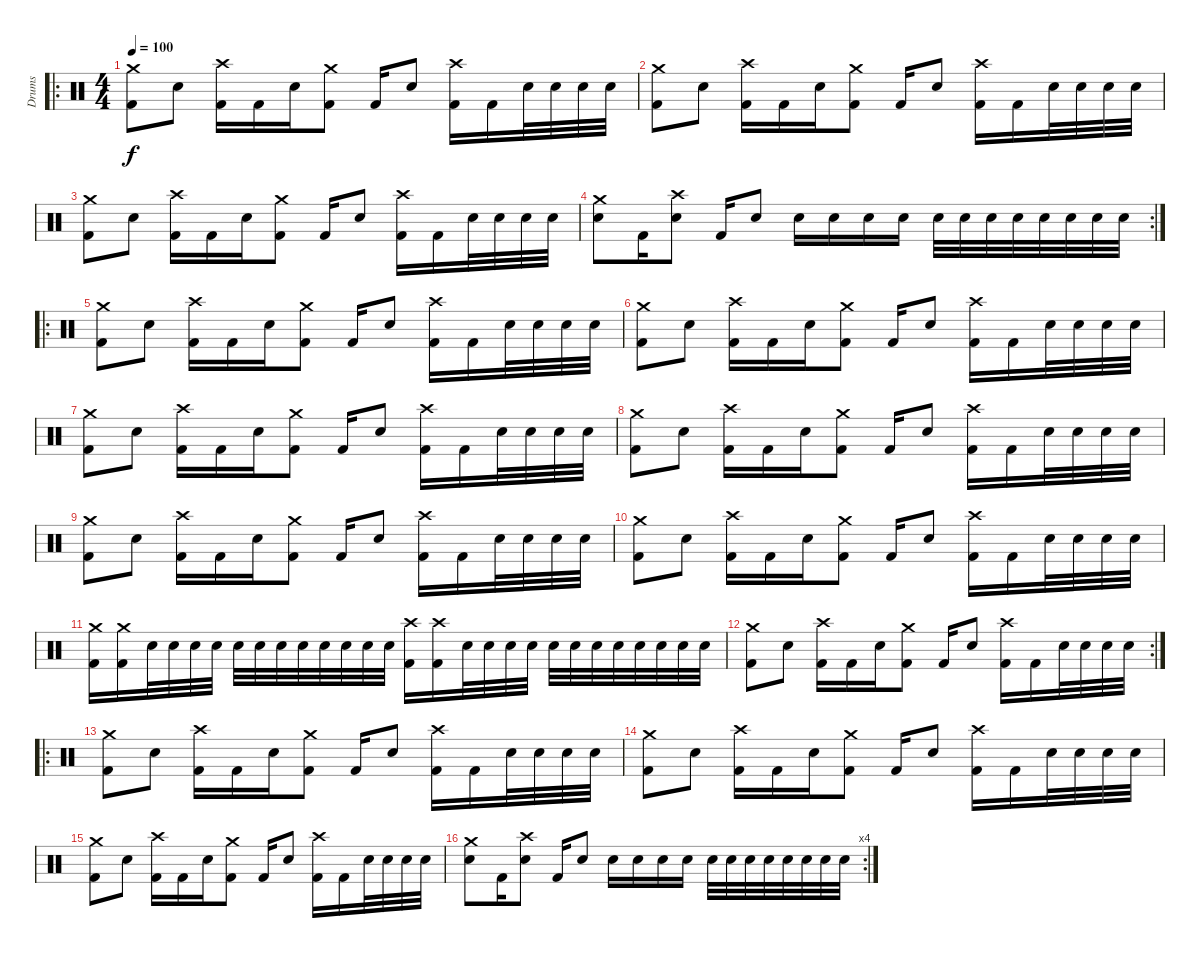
\track ("Drums" "Drums") {instrument percussion}
\staff {score}
\articulation defaults
\ro
\ts (4 4)
\tempo 100
\clef neutral
\ks c
("Crash medium (hit)" "Kick (hit) 2").8{dy f} "Snare (hit) 2".8 ("Crash high (hit)" "Kick (hit) 2").16 "Kick (hit) 2".16 "Snare (hit) 2".16 ("Crash medium (hit)" "Kick (hit) 2").8 "Kick (hit) 2".16 "Snare (hit) 2".8 ("Crash high (hit)" "Kick (hit) 2").16 "Kick (hit) 2".16 "Snare (hit) 2".32 "Snare (hit) 2".32 "Snare (hit) 2".32 "Snare (hit) 2".32 |
("Crash medium (hit)" "Kick (hit) 2").8 "Snare (hit) 2".8 ("Crash high (hit)" "Kick (hit) 2").16 "Kick (hit) 2".16 "Snare (hit) 2".16 ("Crash medium (hit)" "Kick (hit) 2").8 "Kick (hit) 2".16 "Snare (hit) 2".8 ("Crash high (hit)" "Kick (hit) 2").16 "Kick (hit) 2".16 "Snare (hit) 2".32 "Snare (hit) 2".32 "Snare (hit) 2".32 "Snare (hit) 2".32 |
("Crash medium (hit)" "Kick (hit) 2").8 "Snare (hit) 2".8 ("Crash high (hit)" "Kick (hit) 2").16 "Kick (hit) 2".16 "Snare (hit) 2".16 ("Crash medium (hit)" "Kick (hit) 2").8 "Kick (hit) 2".16 "Snare (hit) 2".8 ("Crash high (hit)" "Kick (hit) 2").16 "Kick (hit) 2".16 "Snare (hit) 2".32 "Snare (hit) 2".32 "Snare (hit) 2".32 "Snare (hit) 2".32 |
\rc 2
("Crash medium (hit)" "Snare (hit) 2").8 "Kick (hit) 2".16 ("Crash high (hit)" "Snare (hit) 2").8 "Kick (hit) 2".16 "Snare (hit) 2".8 "Snare (hit) 2".16 "Snare (hit) 2".16 "Snare (hit) 2".16 "Snare (hit) 2".16 "Snare (hit) 2".32 "Snare (hit) 2".32 "Snare (hit) 2".32 "Snare (hit) 2".32 "Snare (hit) 2".32 "Snare (hit) 2".32 "Snare (hit) 2".32 "Snare (hit) 2".32 |
\ro
("Crash medium (hit)" "Kick (hit) 2").8 "Snare (hit) 2".8 ("Crash high (hit)" "Kick (hit) 2").16 "Kick (hit) 2".16 "Snare (hit) 2".16 ("Crash medium (hit)" "Kick (hit) 2").8 "Kick (hit) 2".16 "Snare (hit) 2".8 ("Crash high (hit)" "Kick (hit) 2").16 "Kick (hit) 2".16 "Snare (hit) 2".32 "Snare (hit) 2".32 "Snare (hit) 2".32 "Snare (hit) 2".32 |
("Crash medium (hit)" "Kick (hit) 2").8 "Snare (hit) 2".8 ("Crash high (hit)" "Kick (hit) 2").16 "Kick (hit) 2".16 "Snare (hit) 2".16 ("Crash medium (hit)" "Kick (hit) 2").8 "Kick (hit) 2".16 "Snare (hit) 2".8 ("Crash high (hit)" "Kick (hit) 2").16 "Kick (hit) 2".16 "Snare (hit) 2".32 "Snare (hit) 2".32 "Snare (hit) 2".32 "Snare (hit) 2".32 |
("Crash medium (hit)" "Kick (hit) 2").8 "Snare (hit) 2".8 ("Crash high (hit)" "Kick (hit) 2").16 "Kick (hit) 2".16 "Snare (hit) 2".16 ("Crash medium (hit)" "Kick (hit) 2").8 "Kick (hit) 2".16 "Snare (hit) 2".8 ("Crash high (hit)" "Kick (hit) 2").16 "Kick (hit) 2".16 "Snare (hit) 2".32 "Snare (hit) 2".32 "Snare (hit) 2".32 "Snare (hit) 2".32 |
("Crash medium (hit)" "Kick (hit) 2").8 "Snare (hit) 2".8 ("Crash high (hit)" "Kick (hit) 2").16 "Kick (hit) 2".16 "Snare (hit) 2".16 ("Crash medium (hit)" "Kick (hit) 2").8 "Kick (hit) 2".16 "Snare (hit) 2".8 ("Crash high (hit)" "Kick (hit) 2").16 "Kick (hit) 2".16 "Snare (hit) 2".32 "Snare (hit) 2".32 "Snare (hit) 2".32 "Snare (hit) 2".32 |
("Crash medium (hit)" "Kick (hit) 2").8 "Snare (hit) 2".8 ("Crash high (hit)" "Kick (hit) 2").16 "Kick (hit) 2".16 "Snare (hit) 2".16 ("Crash medium (hit)" "Kick (hit) 2").8 "Kick (hit) 2".16 "Snare (hit) 2".8 ("Crash high (hit)" "Kick (hit) 2").16 "Kick (hit) 2".16 "Snare (hit) 2".32 "Snare (hit) 2".32 "Snare (hit) 2".32 "Snare (hit) 2".32 |
("Crash medium (hit)" "Kick (hit) 2").8 "Snare (hit) 2".8 ("Crash high (hit)" "Kick (hit) 2").16 "Kick (hit) 2".16 "Snare (hit) 2".16 ("Crash medium (hit)" "Kick (hit) 2").8 "Kick (hit) 2".16 "Snare (hit) 2".8 ("Crash high (hit)" "Kick (hit) 2").16 "Kick (hit) 2".16 "Snare (hit) 2".32 "Snare (hit) 2".32 "Snare (hit) 2".32 "Snare (hit) 2".32 |
("Crash medium (hit)" "Kick (hit) 2").16 ("Crash medium (hit)" "Kick (hit) 2").16 "Snare (hit) 2".32 "Snare (hit) 2".32 "Snare (hit) 2".32 "Snare (hit) 2".32 "Snare (hit) 2".32 "Snare (hit) 2".32 "Snare (hit) 2".32 "Snare (hit) 2".32 "Snare (hit) 2".32 "Snare (hit) 2".32 "Snare (hit) 2".32 "Snare (hit) 2".32 ("Crash high (hit)" "Kick (hit) 2").16 ("Crash high (hit)" "Kick (hit) 2").16 "Snare (hit) 2".32 "Snare (hit) 2".32 "Snare (hit) 2".32 "Snare (hit) 2".32 "Snare (hit) 2".32 "Snare (hit) 2".32 "Snare (hit) 2".32 "Snare (hit) 2".32 "Snare (hit) 2".32 "Snare (hit) 2".32 "Snare (hit) 2".32 "Snare (hit) 2".32 |
\rc 2
("Crash medium (hit)" "Kick (hit) 2").8 "Snare (hit) 2".8 ("Crash high (hit)" "Kick (hit) 2").16 "Kick (hit) 2".16 "Snare (hit) 2".16 ("Crash medium (hit)" "Kick (hit) 2").8 "Kick (hit) 2".16 "Snare (hit) 2".8 ("Crash high (hit)" "Kick (hit) 2").16 "Kick (hit) 2".16 "Snare (hit) 2".32 "Snare (hit) 2".32 "Snare (hit) 2".32 "Snare (hit) 2".32 |
\ro
("Crash medium (hit)" "Kick (hit) 2").8 "Snare (hit) 2".8 ("Crash high (hit)" "Kick (hit) 2").16 "Kick (hit) 2".16 "Snare (hit) 2".16 ("Crash medium (hit)" "Kick (hit) 2").8 "Kick (hit) 2".16 "Snare (hit) 2".8 ("Crash high (hit)" "Kick (hit) 2").16 "Kick (hit) 2".16 "Snare (hit) 2".32 "Snare (hit) 2".32 "Snare (hit) 2".32 "Snare (hit) 2".32 |
("Crash medium (hit)" "Kick (hit) 2").8 "Snare (hit) 2".8 ("Crash high (hit)" "Kick (hit) 2").16 "Kick (hit) 2".16 "Snare (hit) 2".16 ("Crash medium (hit)" "Kick (hit) 2").8 "Kick (hit) 2".16 "Snare (hit) 2".8 ("Crash high (hit)" "Kick (hit) 2").16 "Kick (hit) 2".16 "Snare (hit) 2".32 "Snare (hit) 2".32 "Snare (hit) 2".32 "Snare (hit) 2".32 |
("Crash medium (hit)" "Kick (hit) 2").8 "Snare (hit) 2".8 ("Crash high (hit)" "Kick (hit) 2").16 "Kick (hit) 2".16 "Snare (hit) 2".16 ("Crash medium (hit)" "Kick (hit) 2").8 "Kick (hit) 2".16 "Snare (hit) 2".8 ("Crash high (hit)" "Kick (hit) 2").16 "Kick (hit) 2".16 "Snare (hit) 2".32 "Snare (hit) 2".32 "Snare (hit) 2".32 "Snare (hit) 2".32 |
\rc 4
("Crash medium (hit)" "Snare (hit) 2").8 "Kick (hit) 2".16 ("Crash high (hit)" "Snare (hit) 2").8 "Kick (hit) 2".16 "Snare (hit) 2".8 "Snare (hit) 2".16 "Snare (hit) 2".16 "Snare (hit) 2".16 "Snare (hit) 2".16 "Snare (hit) 2".32 "Snare (hit) 2".32 "Snare (hit) 2".32 "Snare (hit) 2".32 "Snare (hit) 2".32 "Snare (hit) 2".32 "Snare (hit) 2".32 "Snare (hit) 2".32
